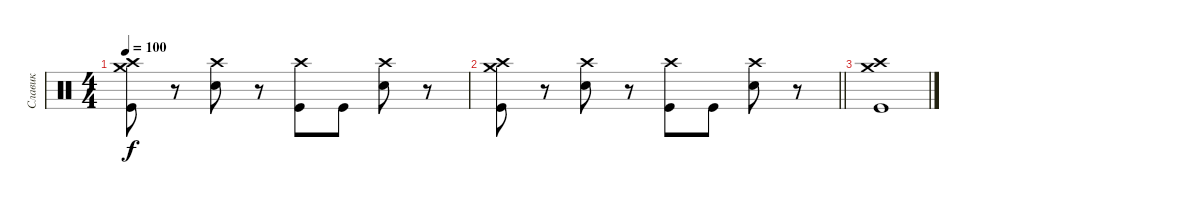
\track ("Славик" "Славик") {instrument percussion}
\staff {score}
\articulation defaults
\ts (4 4)
\tempo 100
\clef neutral
\ks c
("Kick (hit)" "Crash high (hit)" "Crash medium (hit)").8{dy f} r.8 ("Electric Snare (hit)" "Crash high (hit)").8 r.8 ("Kick (hit)" "Crash high (hit)").8 "Kick (hit)".8 ("Electric Snare (hit)" "Crash high (hit)").8 r.8 |
\barLineRight lightlight
("Kick (hit)" "Crash high (hit)" "Crash medium (hit)").8 r.8 ("Electric Snare (hit)" "Crash high (hit)").8 r.8 ("Kick (hit)" "Crash high (hit)").8 "Kick (hit)".8 ("Electric Snare (hit)" "Crash high (hit)").8 r.8 |
("Kick (hit)" "Crash high (hit)" "Crash medium (hit)").1
